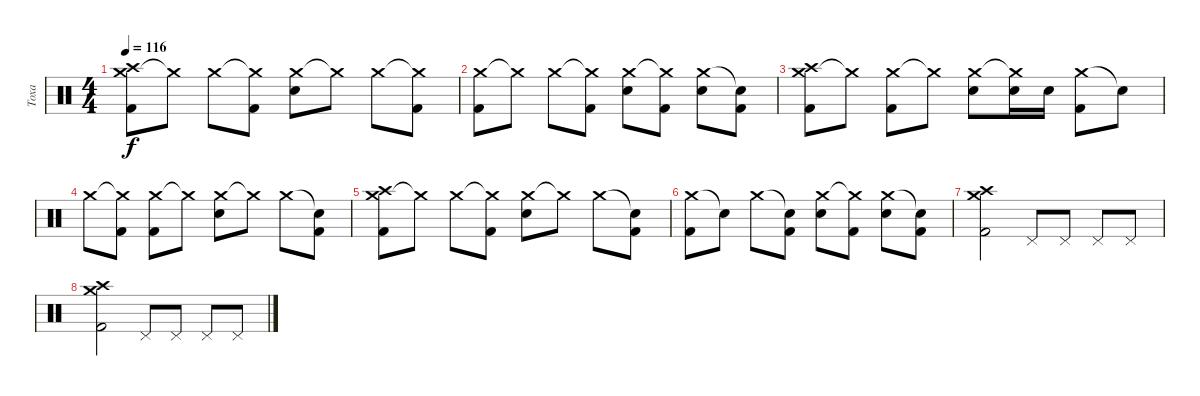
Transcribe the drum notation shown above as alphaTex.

\track ("Тоха" "Тоха") {instrument percussion}
\staff {score}
\articulation defaults
\ts (4 4)
\tempo 116
\clef neutral
\ks c
("Crash medium (hit)" "Crash high (hit)" "Kick (hit) 2").8{dy f} "Crash medium (hit)"{t}.8 "Crash medium (hit)".8 ("Crash medium (hit)"{t} "Kick (hit) 2").8 ("Crash medium (hit)" "Snare (hit) 2").8 "Crash medium (hit)"{t}.8 "Crash medium (hit)".8 ("Crash medium (hit)"{t} "Kick (hit) 2").8 |
("Crash medium (hit)" "Kick (hit) 2").8 "Crash medium (hit)"{t}.8 "Crash medium (hit)".8 ("Crash medium (hit)"{t} "Kick (hit) 2").8 ("Crash medium (hit)" "Snare (hit) 2").8 ("Crash medium (hit)"{t} "Kick (hit) 2").8 ("Crash medium (hit)" "Snare (hit) 2").8 ("Snare (hit)"{t} "Kick (hit) 2").8 |
("Crash medium (hit)" "Crash high (hit)" "Kick (hit) 2").8 "Crash medium (hit)"{t}.8 ("Crash medium (hit)" "Kick (hit) 2").8 "Crash medium (hit)"{t}.8 ("Crash medium (hit)" "Snare (hit) 2").8 ("Crash medium (hit)"{t} "Snare (hit) 2").16 "Snare (hit) 2".16 ("Crash medium (hit)" "Kick (hit) 2").8 "Snare (hit)"{t}.8 |
"Crash medium (hit)".8 ("Crash medium (hit)"{t} "Kick (hit) 2").8 ("Crash medium (hit)" "Kick (hit) 2").8 "Crash medium (hit)"{t}.8 ("Crash medium (hit)" "Snare (hit) 2").8 "Crash medium (hit)"{t}.8 "Crash medium (hit)".8 ("Snare (hit)"{t} "Kick (hit) 2").8 |
("Crash medium (hit)" "Crash high (hit)" "Kick (hit) 2").8 "Crash medium (hit)"{t}.8 "Crash medium (hit)".8 ("Crash medium (hit)"{t} "Kick (hit) 2").8 ("Crash medium (hit)" "Snare (hit) 2").8 "Crash medium (hit)"{t}.8 "Crash medium (hit)".8 ("Snare (hit)"{t} "Kick (hit) 2").8 |
("Crash medium (hit)" "Kick (hit) 2").8 "Snare (hit)"{t}.8 "Crash medium (hit)".8 ("Snare (hit)"{t} "Kick (hit) 2").8 ("Crash medium (hit)" "Snare (hit) 2").8 ("Crash medium (hit)"{t} "Kick (hit) 2").8 ("Crash medium (hit)" "Snare (hit) 2").8 ("Snare (hit)"{t} "Kick (hit) 2").8 |
("Crash medium (hit)" "Crash high (hit)" "Kick (hit) 2").2 "Pedal Hi-Hat (hit)".8 "Pedal Hi-Hat (hit)".8 "Pedal Hi-Hat (hit)".8 "Pedal Hi-Hat (hit)".8 |
("Crash medium (hit)" "Crash high (hit)" "Kick (hit) 2").2 "Pedal Hi-Hat (hit)".8 "Pedal Hi-Hat (hit)".8 "Pedal Hi-Hat (hit)".8 "Pedal Hi-Hat (hit)".8
